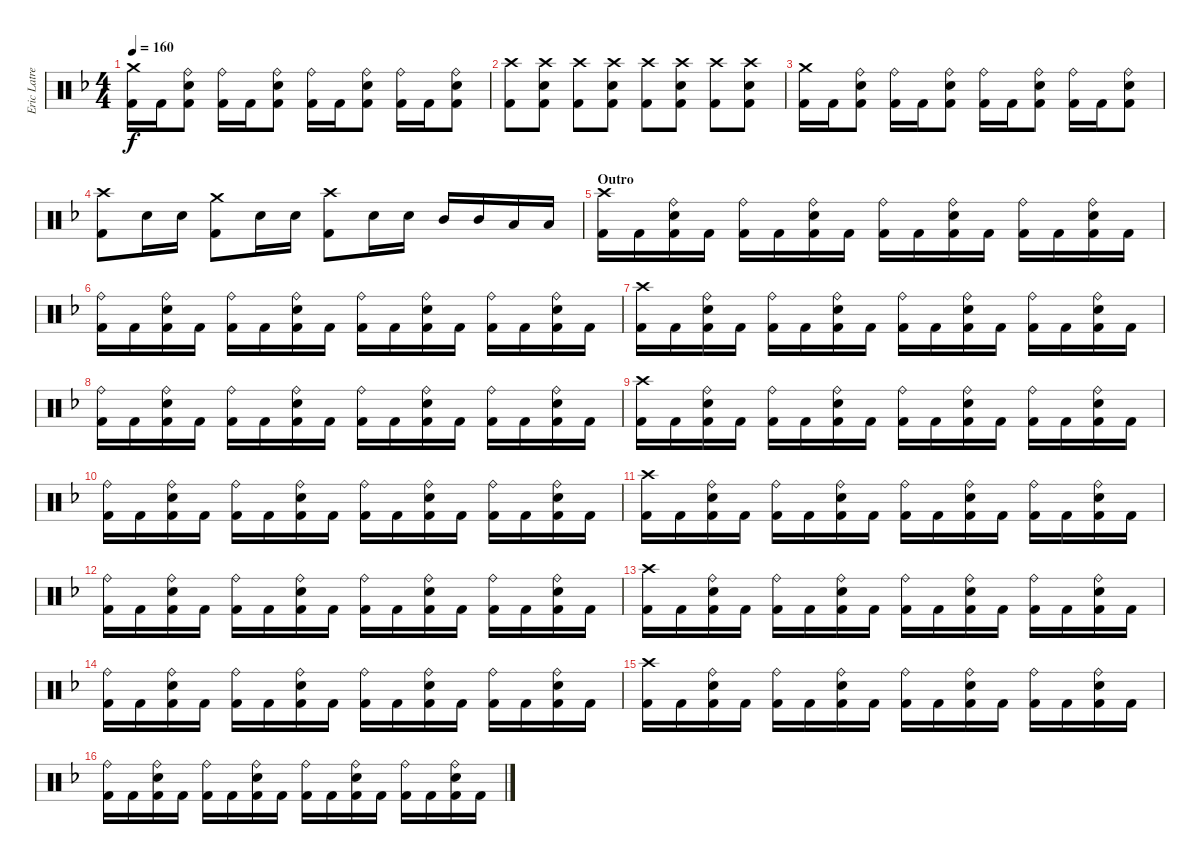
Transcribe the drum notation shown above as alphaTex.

\track ("Eric Latreille" "Eric Latre") {instrument percussion}
\staff {score}
\articulation defaults
\ts (4 4)
\tempo 160
\clef neutral
\ks dminor
("Crash medium (hit)" "Kick (hit) 2").16{dy f} "Kick (hit) 2".16 ("Ride (bell)" "Snare (hit) 2" "Kick (hit) 2").8 ("Ride (bell)" "Kick (hit) 2").16 "Kick (hit) 2".16 ("Ride (bell)" "Snare (hit) 2" "Kick (hit) 2").8 ("Ride (bell)" "Kick (hit) 2").16 "Kick (hit) 2".16 ("Ride (bell)" "Snare (hit) 2" "Kick (hit) 2").8 ("Ride (bell)" "Kick (hit) 2").16 "Kick (hit) 2".16 ("Ride (bell)" "Snare (hit) 2" "Kick (hit) 2").8 |
("Crash high (hit)" "Kick (hit) 2").8 ("Crash high (hit)" "Snare (hit) 2" "Kick (hit) 2").8 ("Crash high (hit)" "Kick (hit) 2").8 ("Crash high (hit)" "Snare (hit) 2" "Kick (hit) 2").8 ("Crash high (hit)" "Kick (hit) 2").8 ("Crash high (hit)" "Snare (hit) 2" "Kick (hit) 2").8 ("Crash high (hit)" "Kick (hit) 2").8 ("Crash high (hit)" "Snare (hit) 2" "Kick (hit) 2").8 |
("Crash medium (hit)" "Kick (hit) 2").16 "Kick (hit) 2".16 ("Ride (bell)" "Snare (hit) 2" "Kick (hit) 2").8 ("Ride (bell)" "Kick (hit) 2").16 "Kick (hit) 2".16 ("Ride (bell)" "Snare (hit) 2" "Kick (hit) 2").8 ("Ride (bell)" "Kick (hit) 2").16 "Kick (hit) 2".16 ("Ride (bell)" "Snare (hit) 2" "Kick (hit) 2").8 ("Ride (bell)" "Kick (hit) 2").16 "Kick (hit) 2".16 ("Ride (bell)" "Snare (hit) 2" "Kick (hit) 2").8 |
("Crash high (hit)" "Kick (hit) 2").8 "Snare (hit) 2".16 "Snare (hit) 2".16 ("Crash medium (hit)" "Kick (hit) 2").8 "Snare (hit) 2".16 "Snare (hit) 2".16 ("Crash high (hit)" "Kick (hit) 2").8 "Snare (hit) 2".16 "Snare (hit) 2".16 "Mid Tom (hit)".16 "Mid Tom (hit)".16 "Low Tom (hit)".16 "Low Tom (hit)".16 |
\section ("" "Outro")
("Crash high (hit)" "Kick (hit) 2").16 "Kick (hit) 2".16 ("Ride (bell)" "Snare (hit) 2" "Kick (hit) 2").16 "Kick (hit) 2".16 ("Ride (bell)" "Kick (hit) 2").16 "Kick (hit) 2".16 ("Ride (bell)" "Snare (hit) 2" "Kick (hit) 2").16 "Kick (hit) 2".16 ("Ride (bell)" "Kick (hit) 2").16 "Kick (hit) 2".16 ("Ride (bell)" "Snare (hit) 2" "Kick (hit) 2").16 "Kick (hit) 2".16 ("Ride (bell)" "Kick (hit) 2").16 "Kick (hit) 2".16 ("Ride (bell)" "Snare (hit) 2" "Kick (hit) 2").16 "Kick (hit) 2".16 |
("Ride (bell)" "Kick (hit) 2").16 "Kick (hit) 2".16 ("Ride (bell)" "Snare (hit) 2" "Kick (hit) 2").16 "Kick (hit) 2".16 ("Ride (bell)" "Kick (hit) 2").16 "Kick (hit) 2".16 ("Ride (bell)" "Snare (hit) 2" "Kick (hit) 2").16 "Kick (hit) 2".16 ("Ride (bell)" "Kick (hit) 2").16 "Kick (hit) 2".16 ("Ride (bell)" "Snare (hit) 2" "Kick (hit) 2").16 "Kick (hit) 2".16 ("Ride (bell)" "Kick (hit) 2").16 "Kick (hit) 2".16 ("Ride (bell)" "Snare (hit) 2" "Kick (hit) 2").16 "Kick (hit) 2".16 |
("Crash high (hit)" "Kick (hit) 2").16 "Kick (hit) 2".16 ("Ride (bell)" "Snare (hit) 2" "Kick (hit) 2").16 "Kick (hit) 2".16 ("Ride (bell)" "Kick (hit) 2").16 "Kick (hit) 2".16 ("Ride (bell)" "Snare (hit) 2" "Kick (hit) 2").16 "Kick (hit) 2".16 ("Ride (bell)" "Kick (hit) 2").16 "Kick (hit) 2".16 ("Ride (bell)" "Snare (hit) 2" "Kick (hit) 2").16 "Kick (hit) 2".16 ("Ride (bell)" "Kick (hit) 2").16 "Kick (hit) 2".16 ("Ride (bell)" "Snare (hit) 2" "Kick (hit) 2").16 "Kick (hit) 2".16 |
("Ride (bell)" "Kick (hit) 2").16 "Kick (hit) 2".16 ("Ride (bell)" "Snare (hit) 2" "Kick (hit) 2").16 "Kick (hit) 2".16 ("Ride (bell)" "Kick (hit) 2").16 "Kick (hit) 2".16 ("Ride (bell)" "Snare (hit) 2" "Kick (hit) 2").16 "Kick (hit) 2".16 ("Ride (bell)" "Kick (hit) 2").16 "Kick (hit) 2".16 ("Ride (bell)" "Snare (hit) 2" "Kick (hit) 2").16 "Kick (hit) 2".16 ("Ride (bell)" "Kick (hit) 2").16 "Kick (hit) 2".16 ("Ride (bell)" "Snare (hit) 2" "Kick (hit) 2").16 "Kick (hit) 2".16 |
("Crash high (hit)" "Kick (hit) 2").16 "Kick (hit) 2".16 ("Ride (bell)" "Snare (hit) 2" "Kick (hit) 2").16 "Kick (hit) 2".16 ("Ride (bell)" "Kick (hit) 2").16 "Kick (hit) 2".16 ("Ride (bell)" "Snare (hit) 2" "Kick (hit) 2").16 "Kick (hit) 2".16 ("Ride (bell)" "Kick (hit) 2").16 "Kick (hit) 2".16 ("Ride (bell)" "Snare (hit) 2" "Kick (hit) 2").16 "Kick (hit) 2".16 ("Ride (bell)" "Kick (hit) 2").16 "Kick (hit) 2".16 ("Ride (bell)" "Snare (hit) 2" "Kick (hit) 2").16 "Kick (hit) 2".16 |
("Ride (bell)" "Kick (hit) 2").16 "Kick (hit) 2".16 ("Ride (bell)" "Snare (hit) 2" "Kick (hit) 2").16 "Kick (hit) 2".16 ("Ride (bell)" "Kick (hit) 2").16 "Kick (hit) 2".16 ("Ride (bell)" "Snare (hit) 2" "Kick (hit) 2").16 "Kick (hit) 2".16 ("Ride (bell)" "Kick (hit) 2").16 "Kick (hit) 2".16 ("Ride (bell)" "Snare (hit) 2" "Kick (hit) 2").16 "Kick (hit) 2".16 ("Ride (bell)" "Kick (hit) 2").16 "Kick (hit) 2".16 ("Ride (bell)" "Snare (hit) 2" "Kick (hit) 2").16 "Kick (hit) 2".16 |
("Crash high (hit)" "Kick (hit) 2").16 "Kick (hit) 2".16 ("Ride (bell)" "Snare (hit) 2" "Kick (hit) 2").16 "Kick (hit) 2".16 ("Ride (bell)" "Kick (hit) 2").16 "Kick (hit) 2".16 ("Ride (bell)" "Snare (hit) 2" "Kick (hit) 2").16 "Kick (hit) 2".16 ("Ride (bell)" "Kick (hit) 2").16 "Kick (hit) 2".16 ("Ride (bell)" "Snare (hit) 2" "Kick (hit) 2").16 "Kick (hit) 2".16 ("Ride (bell)" "Kick (hit) 2").16 "Kick (hit) 2".16 ("Ride (bell)" "Snare (hit) 2" "Kick (hit) 2").16 "Kick (hit) 2".16 |
("Ride (bell)" "Kick (hit) 2").16 "Kick (hit) 2".16 ("Ride (bell)" "Snare (hit) 2" "Kick (hit) 2").16 "Kick (hit) 2".16 ("Ride (bell)" "Kick (hit) 2").16 "Kick (hit) 2".16 ("Ride (bell)" "Snare (hit) 2" "Kick (hit) 2").16 "Kick (hit) 2".16 ("Ride (bell)" "Kick (hit) 2").16 "Kick (hit) 2".16 ("Ride (bell)" "Snare (hit) 2" "Kick (hit) 2").16 "Kick (hit) 2".16 ("Ride (bell)" "Kick (hit) 2").16 "Kick (hit) 2".16 ("Ride (bell)" "Snare (hit) 2" "Kick (hit) 2").16 "Kick (hit) 2".16 |
("Crash high (hit)" "Kick (hit) 2").16 "Kick (hit) 2".16 ("Ride (bell)" "Snare (hit) 2" "Kick (hit) 2").16 "Kick (hit) 2".16 ("Ride (bell)" "Kick (hit) 2").16 "Kick (hit) 2".16 ("Ride (bell)" "Snare (hit) 2" "Kick (hit) 2").16 "Kick (hit) 2".16 ("Ride (bell)" "Kick (hit) 2").16 "Kick (hit) 2".16 ("Ride (bell)" "Snare (hit) 2" "Kick (hit) 2").16 "Kick (hit) 2".16 ("Ride (bell)" "Kick (hit) 2").16 "Kick (hit) 2".16 ("Ride (bell)" "Snare (hit) 2" "Kick (hit) 2").16 "Kick (hit) 2".16 |
("Ride (bell)" "Kick (hit) 2").16 "Kick (hit) 2".16 ("Ride (bell)" "Snare (hit) 2" "Kick (hit) 2").16 "Kick (hit) 2".16 ("Ride (bell)" "Kick (hit) 2").16 "Kick (hit) 2".16 ("Ride (bell)" "Snare (hit) 2" "Kick (hit) 2").16 "Kick (hit) 2".16 ("Ride (bell)" "Kick (hit) 2").16 "Kick (hit) 2".16 ("Ride (bell)" "Snare (hit) 2" "Kick (hit) 2").16 "Kick (hit) 2".16 ("Ride (bell)" "Kick (hit) 2").16 "Kick (hit) 2".16 ("Ride (bell)" "Snare (hit) 2" "Kick (hit) 2").16 "Kick (hit) 2".16 |
("Crash high (hit)" "Kick (hit) 2").16 "Kick (hit) 2".16 ("Ride (bell)" "Snare (hit) 2" "Kick (hit) 2").16 "Kick (hit) 2".16 ("Ride (bell)" "Kick (hit) 2").16 "Kick (hit) 2".16 ("Ride (bell)" "Snare (hit) 2" "Kick (hit) 2").16 "Kick (hit) 2".16 ("Ride (bell)" "Kick (hit) 2").16 "Kick (hit) 2".16 ("Ride (bell)" "Snare (hit) 2" "Kick (hit) 2").16 "Kick (hit) 2".16 ("Ride (bell)" "Kick (hit) 2").16 "Kick (hit) 2".16 ("Ride (bell)" "Snare (hit) 2" "Kick (hit) 2").16 "Kick (hit) 2".16 |
("Ride (bell)" "Kick (hit) 2").16 "Kick (hit) 2".16 ("Ride (bell)" "Snare (hit) 2" "Kick (hit) 2").16 "Kick (hit) 2".16 ("Ride (bell)" "Kick (hit) 2").16 "Kick (hit) 2".16 ("Ride (bell)" "Snare (hit) 2" "Kick (hit) 2").16 "Kick (hit) 2".16 ("Ride (bell)" "Kick (hit) 2").16 "Kick (hit) 2".16 ("Ride (bell)" "Snare (hit) 2" "Kick (hit) 2").16 "Kick (hit) 2".16 ("Ride (bell)" "Kick (hit) 2").16 "Kick (hit) 2".16 ("Ride (bell)" "Snare (hit) 2" "Kick (hit) 2").16 "Kick (hit) 2".16
